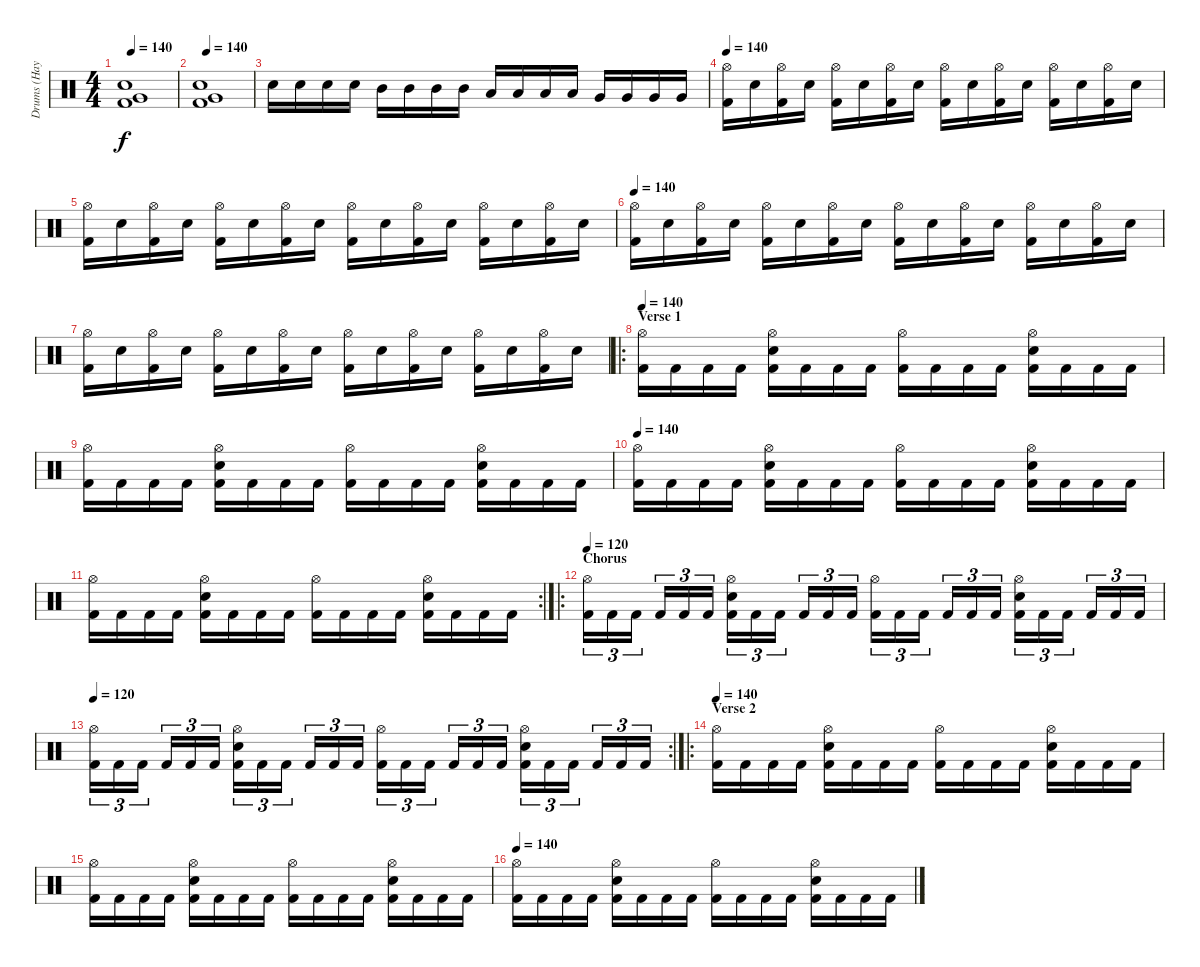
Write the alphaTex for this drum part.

\track ("Drums (Hayden)" "Drums (Hay") {instrument percussion}
\staff {score}
\articulation defaults
\ts (4 4)
\tempo 140
\clef neutral
\ks c
("Electric Snare (hit)" "Very Low Tom (hit)" "Kick (hit) 2").1{dy f} |
\tempo 140
("Electric Snare (hit)" "Very Low Tom (hit)" "Kick (hit) 2").1 |
"Electric Snare (hit)".16 "Electric Snare (hit)".16 "Electric Snare (hit)".16 "Electric Snare (hit)".16 "Mid Tom (hit)".16 "Mid Tom (hit)".16 "Mid Tom (hit)".16 "Mid Tom (hit)".16 "Low Tom (hit)".16 "Low Tom (hit)".16 "Low Tom (hit)".16 "Low Tom (hit)".16 "Very Low Tom (hit)".16 "Very Low Tom (hit)".16 "Very Low Tom (hit)".16 "Very Low Tom (hit)".16 |
\tempo 140
("Kick (hit) 2" "Hi-Hat (open)").16 "Electric Snare (hit)".16 ("Kick (hit) 2" "Hi-Hat (open)").16 "Electric Snare (hit)".16 ("Kick (hit) 2" "Hi-Hat (open)").16 "Electric Snare (hit)".16 ("Kick (hit) 2" "Hi-Hat (open)").16 "Electric Snare (hit)".16 ("Kick (hit) 2" "Hi-Hat (open)").16 "Electric Snare (hit)".16 ("Kick (hit) 2" "Hi-Hat (open)").16 "Electric Snare (hit)".16 ("Kick (hit) 2" "Hi-Hat (open)").16 "Electric Snare (hit)".16 ("Kick (hit) 2" "Hi-Hat (open)").16 "Electric Snare (hit)".16 |
("Kick (hit) 2" "Hi-Hat (open)").16 "Electric Snare (hit)".16 ("Kick (hit) 2" "Hi-Hat (open)").16 "Electric Snare (hit)".16 ("Kick (hit) 2" "Hi-Hat (open)").16 "Electric Snare (hit)".16 ("Kick (hit) 2" "Hi-Hat (open)").16 "Electric Snare (hit)".16 ("Kick (hit) 2" "Hi-Hat (open)").16 "Electric Snare (hit)".16 ("Kick (hit) 2" "Hi-Hat (open)").16 "Electric Snare (hit)".16 ("Kick (hit) 2" "Hi-Hat (open)").16 "Electric Snare (hit)".16 ("Kick (hit) 2" "Hi-Hat (open)").16 "Electric Snare (hit)".16 |
\tempo 140
("Kick (hit) 2" "Hi-Hat (open)").16 "Electric Snare (hit)".16 ("Kick (hit) 2" "Hi-Hat (open)").16 "Electric Snare (hit)".16 ("Kick (hit) 2" "Hi-Hat (open)").16 "Electric Snare (hit)".16 ("Kick (hit) 2" "Hi-Hat (open)").16 "Electric Snare (hit)".16 ("Kick (hit) 2" "Hi-Hat (open)").16 "Electric Snare (hit)".16 ("Kick (hit) 2" "Hi-Hat (open)").16 "Electric Snare (hit)".16 ("Kick (hit) 2" "Hi-Hat (open)").16 "Electric Snare (hit)".16 ("Kick (hit) 2" "Hi-Hat (open)").16 "Electric Snare (hit)".16 |
("Kick (hit) 2" "Hi-Hat (open)").16 "Electric Snare (hit)".16 ("Kick (hit) 2" "Hi-Hat (open)").16 "Electric Snare (hit)".16 ("Kick (hit) 2" "Hi-Hat (open)").16 "Electric Snare (hit)".16 ("Kick (hit) 2" "Hi-Hat (open)").16 "Electric Snare (hit)".16 ("Kick (hit) 2" "Hi-Hat (open)").16 "Electric Snare (hit)".16 ("Kick (hit) 2" "Hi-Hat (open)").16 "Electric Snare (hit)".16 ("Kick (hit) 2" "Hi-Hat (open)").16 "Electric Snare (hit)".16 ("Kick (hit) 2" "Hi-Hat (open)").16 "Electric Snare (hit)".16 |
\ro
\section ("" "Verse 1")
\tempo 140
("Kick (hit) 2" "Hi-Hat (open)").16 "Kick (hit) 2".16 "Kick (hit) 2".16 "Kick (hit) 2".16 ("Kick (hit) 2" "Hi-Hat (open)" "Electric Snare (hit)").16 "Kick (hit) 2".16 "Kick (hit) 2".16 "Kick (hit) 2".16 ("Kick (hit) 2" "Hi-Hat (open)").16 "Kick (hit) 2".16 "Kick (hit) 2".16 "Kick (hit) 2".16 ("Kick (hit) 2" "Hi-Hat (open)" "Electric Snare (hit)").16 "Kick (hit) 2".16 "Kick (hit) 2".16 "Kick (hit) 2".16 |
("Kick (hit) 2" "Hi-Hat (open)").16 "Kick (hit) 2".16 "Kick (hit) 2".16 "Kick (hit) 2".16 ("Kick (hit) 2" "Hi-Hat (open)" "Electric Snare (hit)").16 "Kick (hit) 2".16 "Kick (hit) 2".16 "Kick (hit) 2".16 ("Kick (hit) 2" "Hi-Hat (open)").16 "Kick (hit) 2".16 "Kick (hit) 2".16 "Kick (hit) 2".16 ("Kick (hit) 2" "Hi-Hat (open)" "Electric Snare (hit)").16 "Kick (hit) 2".16 "Kick (hit) 2".16 "Kick (hit) 2".16 |
\tempo 140
("Kick (hit) 2" "Hi-Hat (open)").16 "Kick (hit) 2".16 "Kick (hit) 2".16 "Kick (hit) 2".16 ("Kick (hit) 2" "Hi-Hat (open)" "Electric Snare (hit)").16 "Kick (hit) 2".16 "Kick (hit) 2".16 "Kick (hit) 2".16 ("Kick (hit) 2" "Hi-Hat (open)").16 "Kick (hit) 2".16 "Kick (hit) 2".16 "Kick (hit) 2".16 ("Kick (hit) 2" "Hi-Hat (open)" "Electric Snare (hit)").16 "Kick (hit) 2".16 "Kick (hit) 2".16 "Kick (hit) 2".16 |
\rc 2
("Kick (hit) 2" "Hi-Hat (open)").16 "Kick (hit) 2".16 "Kick (hit) 2".16 "Kick (hit) 2".16 ("Kick (hit) 2" "Hi-Hat (open)" "Electric Snare (hit)").16 "Kick (hit) 2".16 "Kick (hit) 2".16 "Kick (hit) 2".16 ("Kick (hit) 2" "Hi-Hat (open)").16 "Kick (hit) 2".16 "Kick (hit) 2".16 "Kick (hit) 2".16 ("Kick (hit) 2" "Hi-Hat (open)" "Electric Snare (hit)").16 "Kick (hit) 2".16 "Kick (hit) 2".16 "Kick (hit) 2".16 |
\ro
\section ("" "Chorus")
\tempo 120
("Kick (hit) 2" "Hi-Hat (open)").16{tu (3 2)} "Kick (hit) 2".16{tu (3 2)} "Kick (hit) 2".16{tu (3 2)} "Kick (hit) 2".16{tu (3 2)} "Kick (hit) 2".16{tu (3 2)} "Kick (hit) 2".16{tu (3 2)} ("Kick (hit) 2" "Hi-Hat (open)" "Electric Snare (hit)").16{tu (3 2)} "Kick (hit) 2".16{tu (3 2)} "Kick (hit) 2".16{tu (3 2)} "Kick (hit) 2".16{tu (3 2)} "Kick (hit) 2".16{tu (3 2)} "Kick (hit) 2".16{tu (3 2)} ("Kick (hit) 2" "Hi-Hat (open)").16{tu (3 2)} "Kick (hit) 2".16{tu (3 2)} "Kick (hit) 2".16{tu (3 2)} "Kick (hit) 2".16{tu (3 2)} "Kick (hit) 2".16{tu (3 2)} "Kick (hit) 2".16{tu (3 2)} ("Kick (hit) 2" "Hi-Hat (open)" "Electric Snare (hit)").16{tu (3 2)} "Kick (hit) 2".16{tu (3 2)} "Kick (hit) 2".16{tu (3 2)} "Kick (hit) 2".16{tu (3 2)} "Kick (hit) 2".16{tu (3 2)} "Kick (hit) 2".16{tu (3 2)} |
\rc 2
\tempo 120
("Kick (hit) 2" "Hi-Hat (open)").16{tu (3 2)} "Kick (hit) 2".16{tu (3 2)} "Kick (hit) 2".16{tu (3 2)} "Kick (hit) 2".16{tu (3 2)} "Kick (hit) 2".16{tu (3 2)} "Kick (hit) 2".16{tu (3 2)} ("Kick (hit) 2" "Hi-Hat (open)" "Electric Snare (hit)").16{tu (3 2)} "Kick (hit) 2".16{tu (3 2)} "Kick (hit) 2".16{tu (3 2)} "Kick (hit) 2".16{tu (3 2)} "Kick (hit) 2".16{tu (3 2)} "Kick (hit) 2".16{tu (3 2)} ("Kick (hit) 2" "Hi-Hat (open)").16{tu (3 2)} "Kick (hit) 2".16{tu (3 2)} "Kick (hit) 2".16{tu (3 2)} "Kick (hit) 2".16{tu (3 2)} "Kick (hit) 2".16{tu (3 2)} "Kick (hit) 2".16{tu (3 2)} ("Kick (hit) 2" "Hi-Hat (open)" "Electric Snare (hit)").16{tu (3 2)} "Kick (hit) 2".16{tu (3 2)} "Kick (hit) 2".16{tu (3 2)} "Kick (hit) 2".16{tu (3 2)} "Kick (hit) 2".16{tu (3 2)} "Kick (hit) 2".16{tu (3 2)} |
\ro
\section ("" "Verse 2")
\tempo 140
("Kick (hit) 2" "Hi-Hat (open)").16 "Kick (hit) 2".16 "Kick (hit) 2".16 "Kick (hit) 2".16 ("Kick (hit) 2" "Hi-Hat (open)" "Electric Snare (hit)").16 "Kick (hit) 2".16 "Kick (hit) 2".16 "Kick (hit) 2".16 ("Kick (hit) 2" "Hi-Hat (open)").16 "Kick (hit) 2".16 "Kick (hit) 2".16 "Kick (hit) 2".16 ("Kick (hit) 2" "Hi-Hat (open)" "Electric Snare (hit)").16 "Kick (hit) 2".16 "Kick (hit) 2".16 "Kick (hit) 2".16 |
("Kick (hit) 2" "Hi-Hat (open)").16 "Kick (hit) 2".16 "Kick (hit) 2".16 "Kick (hit) 2".16 ("Kick (hit) 2" "Hi-Hat (open)" "Electric Snare (hit)").16 "Kick (hit) 2".16 "Kick (hit) 2".16 "Kick (hit) 2".16 ("Kick (hit) 2" "Hi-Hat (open)").16 "Kick (hit) 2".16 "Kick (hit) 2".16 "Kick (hit) 2".16 ("Kick (hit) 2" "Hi-Hat (open)" "Electric Snare (hit)").16 "Kick (hit) 2".16 "Kick (hit) 2".16 "Kick (hit) 2".16 |
\tempo 140
("Kick (hit) 2" "Hi-Hat (open)").16 "Kick (hit) 2".16 "Kick (hit) 2".16 "Kick (hit) 2".16 ("Kick (hit) 2" "Hi-Hat (open)" "Electric Snare (hit)").16 "Kick (hit) 2".16 "Kick (hit) 2".16 "Kick (hit) 2".16 ("Kick (hit) 2" "Hi-Hat (open)").16 "Kick (hit) 2".16 "Kick (hit) 2".16 "Kick (hit) 2".16 ("Kick (hit) 2" "Hi-Hat (open)" "Electric Snare (hit)").16 "Kick (hit) 2".16 "Kick (hit) 2".16 "Kick (hit) 2".16
